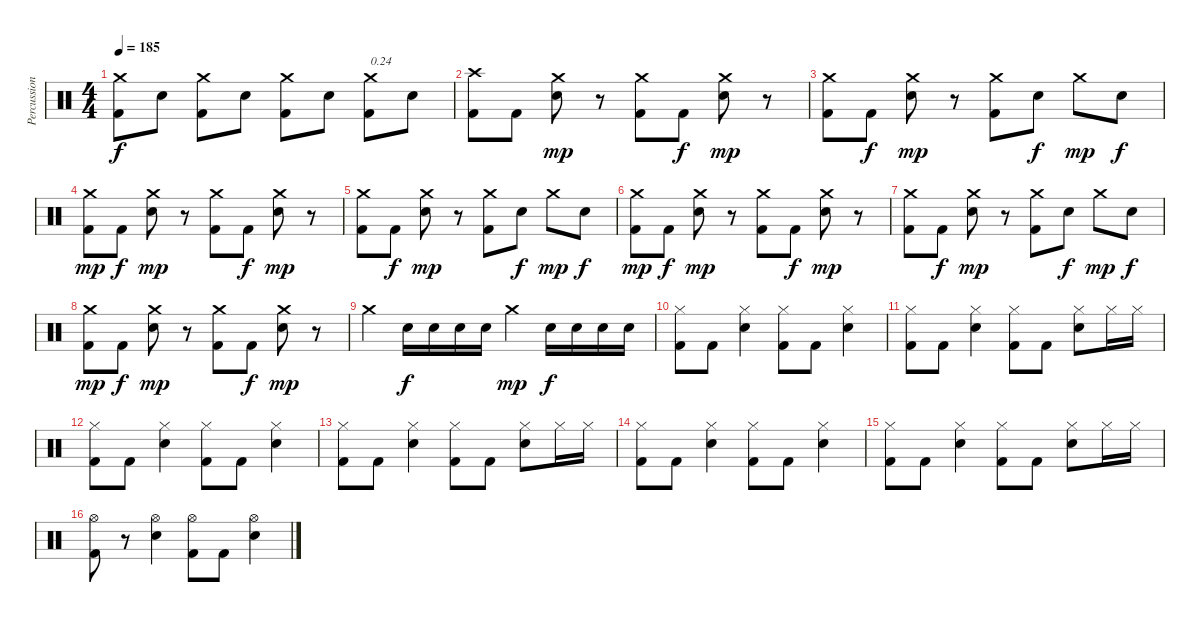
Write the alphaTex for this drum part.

\track ("Percussions" "Percussion") {instrument percussion}
\staff {score}
\articulation defaults
\ts (4 4)
\tempo 185
\clef neutral
\ks c
("Kick (hit) 2" "Crash medium (hit)").8{dy f} "Electric Snare (hit)".8 ("Kick (hit) 2" "Crash medium (hit)").8 "Electric Snare (hit)".8 ("Kick (hit) 2" "Crash medium (hit)").8 "Electric Snare (hit)".8 ("Kick (hit) 2" "Crash medium (hit)").8{txt "0.24"} "Electric Snare (hit)".8 |
("Kick (hit) 2" "Crash high (hit)").8 "Kick (hit) 2".8 ("Electric Snare (hit)" "Crash medium (hit)").8{dy mp} r.8 ("Kick (hit) 2" "Crash medium (hit)").8 "Kick (hit) 2".8{dy f} ("Electric Snare (hit)" "Crash medium (hit)").8{dy mp} r.8 |
("Kick (hit) 2" "Crash medium (hit)").8 "Kick (hit) 2".8{dy f} ("Electric Snare (hit)" "Crash medium (hit)").8{dy mp} r.8 ("Kick (hit) 2" "Crash medium (hit)").8 "Electric Snare (hit)".8{dy f} "Crash medium (hit)".8{dy mp} "Electric Snare (hit)".8{dy f} |
("Kick (hit) 2" "Crash medium (hit)").8{dy mp} "Kick (hit) 2".8{dy f} ("Electric Snare (hit)" "Crash medium (hit)").8{dy mp} r.8 ("Kick (hit) 2" "Crash medium (hit)").8 "Kick (hit) 2".8{dy f} ("Electric Snare (hit)" "Crash medium (hit)").8{dy mp} r.8 |
("Kick (hit) 2" "Crash medium (hit)").8 "Kick (hit) 2".8{dy f} ("Electric Snare (hit)" "Crash medium (hit)").8{dy mp} r.8 ("Kick (hit) 2" "Crash medium (hit)").8 "Electric Snare (hit)".8{dy f} "Crash medium (hit)".8{dy mp} "Electric Snare (hit)".8{dy f} |
("Kick (hit) 2" "Crash medium (hit)").8{dy mp} "Kick (hit) 2".8{dy f} ("Electric Snare (hit)" "Crash medium (hit)").8{dy mp} r.8 ("Kick (hit) 2" "Crash medium (hit)").8 "Kick (hit) 2".8{dy f} ("Electric Snare (hit)" "Crash medium (hit)").8{dy mp} r.8 |
("Kick (hit) 2" "Crash medium (hit)").8 "Kick (hit) 2".8{dy f} ("Electric Snare (hit)" "Crash medium (hit)").8{dy mp} r.8 ("Kick (hit) 2" "Crash medium (hit)").8 "Electric Snare (hit)".8{dy f} "Crash medium (hit)".8{dy mp} "Electric Snare (hit)".8{dy f} |
("Kick (hit) 2" "Crash medium (hit)").8{dy mp} "Kick (hit) 2".8{dy f} ("Electric Snare (hit)" "Crash medium (hit)").8{dy mp} r.8 ("Kick (hit) 2" "Crash medium (hit)").8 "Kick (hit) 2".8{dy f} ("Electric Snare (hit)" "Crash medium (hit)").8{dy mp} r.8 |
"Crash medium (hit)".4 "Electric Snare (hit)".16{dy f} "Electric Snare (hit)".16 "Electric Snare (hit)".16 "Electric Snare (hit)".16 "Crash medium (hit)".4{dy mp} "Electric Snare (hit)".16{dy f} "Electric Snare (hit)".16 "Electric Snare (hit)".16 "Electric Snare (hit)".16 |
("Kick (hit) 2" "Hi-Hat (closed)").8 "Kick (hit) 2".8 ("Electric Snare (hit)" "Hi-Hat (closed)").4 ("Kick (hit) 2" "Hi-Hat (closed)").8 "Kick (hit) 2".8 ("Electric Snare (hit)" "Hi-Hat (closed)").4 |
("Kick (hit) 2" "Hi-Hat (closed)").8 "Kick (hit) 2".8 ("Electric Snare (hit)" "Hi-Hat (closed)").4 ("Kick (hit) 2" "Hi-Hat (closed)").8 "Kick (hit) 2".8 ("Electric Snare (hit)" "Hi-Hat (closed)").8 "Hi-Hat (closed)".16 "Hi-Hat (closed)".16 |
("Kick (hit) 2" "Hi-Hat (closed)").8 "Kick (hit) 2".8 ("Electric Snare (hit)" "Hi-Hat (closed)").4 ("Kick (hit) 2" "Hi-Hat (closed)").8 "Kick (hit) 2".8 ("Electric Snare (hit)" "Hi-Hat (closed)").4 |
("Kick (hit) 2" "Hi-Hat (closed)").8 "Kick (hit) 2".8 ("Electric Snare (hit)" "Hi-Hat (closed)").4 ("Kick (hit) 2" "Hi-Hat (closed)").8 "Kick (hit) 2".8 ("Electric Snare (hit)" "Hi-Hat (closed)").8 "Hi-Hat (closed)".16 "Hi-Hat (closed)".16 |
("Kick (hit) 2" "Hi-Hat (closed)").8 "Kick (hit) 2".8 ("Electric Snare (hit)" "Hi-Hat (closed)").4 ("Kick (hit) 2" "Hi-Hat (closed)").8 "Kick (hit) 2".8 ("Electric Snare (hit)" "Hi-Hat (closed)").4 |
("Kick (hit) 2" "Hi-Hat (closed)").8 "Kick (hit) 2".8 ("Electric Snare (hit)" "Hi-Hat (closed)").4 ("Kick (hit) 2" "Hi-Hat (closed)").8 "Kick (hit) 2".8 ("Electric Snare (hit)" "Hi-Hat (closed)").8 "Hi-Hat (closed)".16 "Hi-Hat (closed)".16 |
("Kick (hit) 2" "Hi-Hat (open)").8 r.8 ("Electric Snare (hit)" "Hi-Hat (open)").4 ("Kick (hit) 2" "Hi-Hat (open)").8 "Kick (hit) 2".8 ("Electric Snare (hit)" "Hi-Hat (open)").4
